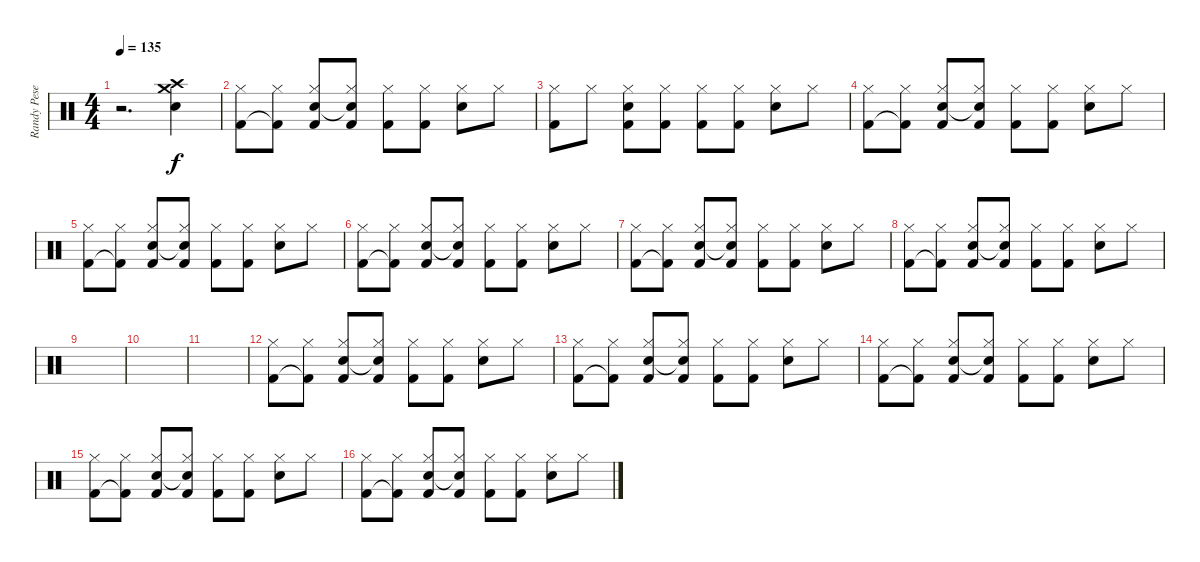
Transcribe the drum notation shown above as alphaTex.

\track ("Randy Pesek" "Randy Pese") {instrument percussion}
\staff {score}
\articulation defaults
\ts (4 4)
\tempo 135
\clef neutral
\ks c
r.2{d dy f} ("Snare (hit) 2" "Crash high (hit)" "Crash medium (hit)").4 |
("Hi-Hat (closed)" "Kick (hit) 2").8 ("Hi-Hat (closed)" "Kick (hit) 2"{t}).8 ("Hi-Hat (closed)" "Snare (hit) 2" "Kick (hit) 2").8 ("Hi-Hat (closed)" "Snare (hit)"{t} "Kick (hit) 2").8 ("Hi-Hat (closed)" "Kick (hit) 2").8 ("Hi-Hat (closed)" "Kick (hit) 2").8 ("Hi-Hat (closed)" "Snare (hit) 2").8 "Hi-Hat (closed)".8 |
("Hi-Hat (closed)" "Kick (hit) 2").8 "Hi-Hat (closed)".8 ("Hi-Hat (closed)" "Snare (hit) 2" "Kick (hit) 2").8 ("Hi-Hat (closed)" "Kick (hit) 2").8 ("Hi-Hat (closed)" "Kick (hit) 2").8 ("Hi-Hat (closed)" "Kick (hit) 2").8 ("Hi-Hat (closed)" "Snare (hit) 2").8 "Hi-Hat (closed)".8 |
("Hi-Hat (closed)" "Kick (hit) 2").8 ("Hi-Hat (closed)" "Kick (hit) 2"{t}).8 ("Hi-Hat (closed)" "Snare (hit) 2" "Kick (hit) 2").8 ("Hi-Hat (closed)" "Snare (hit)"{t} "Kick (hit) 2").8 ("Hi-Hat (closed)" "Kick (hit) 2").8 ("Hi-Hat (closed)" "Kick (hit) 2").8 ("Hi-Hat (closed)" "Snare (hit) 2").8 "Hi-Hat (closed)".8 |
("Hi-Hat (closed)" "Kick (hit) 2").8 ("Hi-Hat (closed)" "Kick (hit) 2"{t}).8 ("Hi-Hat (closed)" "Snare (hit) 2" "Kick (hit) 2").8 ("Hi-Hat (closed)" "Snare (hit)"{t} "Kick (hit) 2").8 ("Hi-Hat (closed)" "Kick (hit) 2").8 ("Hi-Hat (closed)" "Kick (hit) 2").8 ("Hi-Hat (closed)" "Snare (hit) 2").8 "Hi-Hat (closed)".8 |
("Hi-Hat (closed)" "Kick (hit) 2").8 ("Hi-Hat (closed)" "Kick (hit) 2"{t}).8 ("Hi-Hat (closed)" "Snare (hit) 2" "Kick (hit) 2").8 ("Hi-Hat (closed)" "Snare (hit)"{t} "Kick (hit) 2").8 ("Hi-Hat (closed)" "Kick (hit) 2").8 ("Hi-Hat (closed)" "Kick (hit) 2").8 ("Hi-Hat (closed)" "Snare (hit) 2").8 "Hi-Hat (closed)".8 |
("Hi-Hat (closed)" "Kick (hit) 2").8 ("Hi-Hat (closed)" "Kick (hit) 2"{t}).8 ("Hi-Hat (closed)" "Snare (hit) 2" "Kick (hit) 2").8 ("Hi-Hat (closed)" "Snare (hit)"{t} "Kick (hit) 2").8 ("Hi-Hat (closed)" "Kick (hit) 2").8 ("Hi-Hat (closed)" "Kick (hit) 2").8 ("Hi-Hat (closed)" "Snare (hit) 2").8 "Hi-Hat (closed)".8 |
("Hi-Hat (closed)" "Kick (hit) 2").8 ("Hi-Hat (closed)" "Kick (hit) 2"{t}).8 ("Hi-Hat (closed)" "Snare (hit) 2" "Kick (hit) 2").8 ("Hi-Hat (closed)" "Snare (hit)"{t} "Kick (hit) 2").8 ("Hi-Hat (closed)" "Kick (hit) 2").8 ("Hi-Hat (closed)" "Kick (hit) 2").8 ("Hi-Hat (closed)" "Snare (hit) 2").8 "Hi-Hat (closed)".8 |
|
|
|
("Hi-Hat (closed)" "Kick (hit) 2").8 ("Hi-Hat (closed)" "Kick (hit) 2"{t}).8 ("Hi-Hat (closed)" "Snare (hit) 2" "Kick (hit) 2").8 ("Hi-Hat (closed)" "Snare (hit)"{t} "Kick (hit) 2").8 ("Hi-Hat (closed)" "Kick (hit) 2").8 ("Hi-Hat (closed)" "Kick (hit) 2").8 ("Hi-Hat (closed)" "Snare (hit) 2").8 "Hi-Hat (closed)".8 |
("Hi-Hat (closed)" "Kick (hit) 2").8 ("Hi-Hat (closed)" "Kick (hit) 2"{t}).8 ("Hi-Hat (closed)" "Snare (hit) 2" "Kick (hit) 2").8 ("Hi-Hat (closed)" "Snare (hit)"{t} "Kick (hit) 2").8 ("Hi-Hat (closed)" "Kick (hit) 2").8 ("Hi-Hat (closed)" "Kick (hit) 2").8 ("Hi-Hat (closed)" "Snare (hit) 2").8 "Hi-Hat (closed)".8 |
("Hi-Hat (closed)" "Kick (hit) 2").8 ("Hi-Hat (closed)" "Kick (hit) 2"{t}).8 ("Hi-Hat (closed)" "Snare (hit) 2" "Kick (hit) 2").8 ("Hi-Hat (closed)" "Snare (hit)"{t} "Kick (hit) 2").8 ("Hi-Hat (closed)" "Kick (hit) 2").8 ("Hi-Hat (closed)" "Kick (hit) 2").8 ("Hi-Hat (closed)" "Snare (hit) 2").8 "Hi-Hat (closed)".8 |
("Hi-Hat (closed)" "Kick (hit) 2").8 ("Hi-Hat (closed)" "Kick (hit) 2"{t}).8 ("Hi-Hat (closed)" "Snare (hit) 2" "Kick (hit) 2").8 ("Hi-Hat (closed)" "Snare (hit)"{t} "Kick (hit) 2").8 ("Hi-Hat (closed)" "Kick (hit) 2").8 ("Hi-Hat (closed)" "Kick (hit) 2").8 ("Hi-Hat (closed)" "Snare (hit) 2").8 "Hi-Hat (closed)".8 |
("Hi-Hat (closed)" "Kick (hit) 2").8 ("Hi-Hat (closed)" "Kick (hit) 2"{t}).8 ("Hi-Hat (closed)" "Snare (hit) 2" "Kick (hit) 2").8 ("Hi-Hat (closed)" "Snare (hit)"{t} "Kick (hit) 2").8 ("Hi-Hat (closed)" "Kick (hit) 2").8 ("Hi-Hat (closed)" "Kick (hit) 2").8 ("Hi-Hat (closed)" "Snare (hit) 2").8 "Hi-Hat (closed)".8
